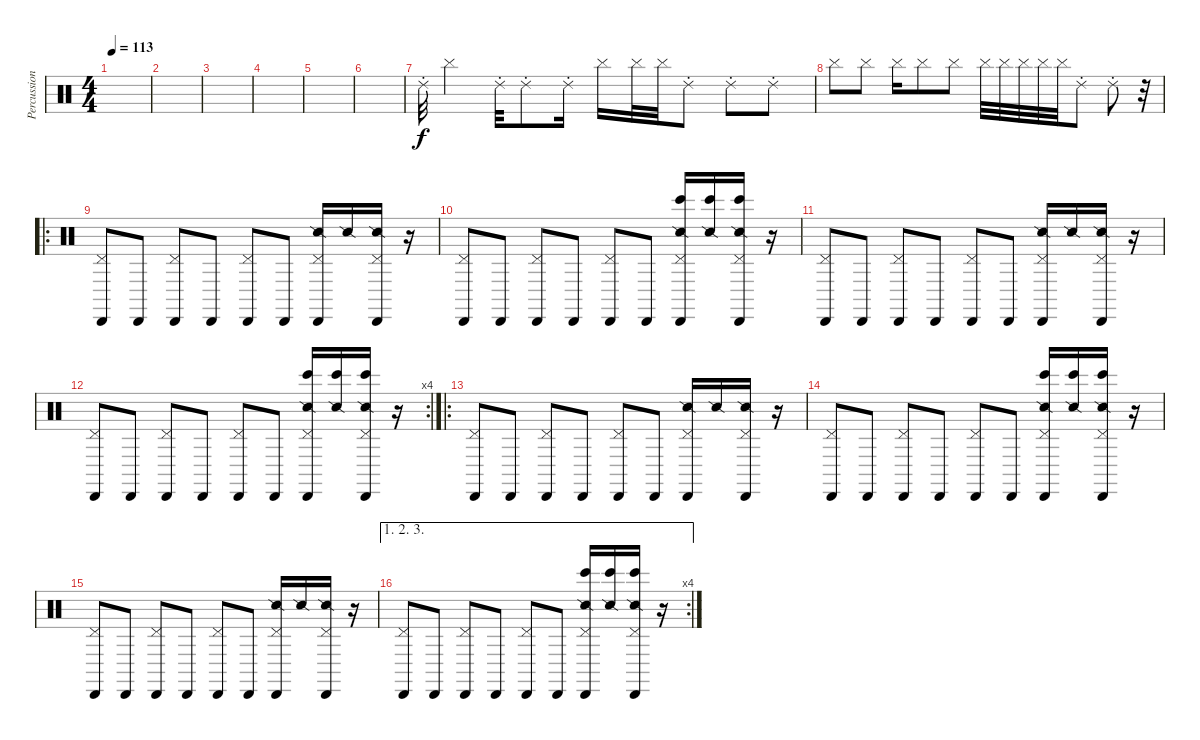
\track ("Percussion" "Percussion") {instrument percussion}
\staff {score}
\articulation defaults
\ts (4 4)
\tempo 113
\clef neutral
\ks c
|
|
|
|
|
|
"Ride (choke) 2".32{volume 16} "Cymbal (hit)".4 "Ride (choke) 2".32 "Ride (choke) 2".8 "Ride (choke) 2".16 "Cymbal (hit)".16 "Cymbal (hit)".32 "Cymbal (hit)".32 "Ride (choke) 2".8 "Ride (choke) 2".8 "Ride (choke) 2".8 |
"Cymbal (hit)".8 "Cymbal (hit)".8 "Cymbal (hit)".16 "Cymbal (hit)".8 "Cymbal (hit)".8 "Cymbal (hit)".32 "Cymbal (hit)".32 "Cymbal (hit)".32 "Cymbal (hit)".32 "Cymbal (hit)".32 "Ride (choke) 2".8 "Ride (choke) 2".8 r.32 |
\ro
("Cabasa (hit)" "Pedal Hi-Hat (hit)").8 "Cabasa (hit)".8 ("Cabasa (hit)" "Pedal Hi-Hat (hit)").8 "Cabasa (hit)".8 ("Cabasa (hit)" "Pedal Hi-Hat (hit)").8 "Cabasa (hit)".8 ("Cabasa (hit)" "Snare (side stick) 2" "Pedal Hi-Hat (hit)").16 "Snare (side stick) 2".16 ("Cabasa (hit)" "Snare (side stick) 2" "Pedal Hi-Hat (hit)").16 r.16 |
("Cabasa (hit)" "Pedal Hi-Hat (hit)").8 "Cabasa (hit)".8 ("Cabasa (hit)" "Pedal Hi-Hat (hit)").8 "Cabasa (hit)".8 ("Cabasa (hit)" "Pedal Hi-Hat (hit)").8 "Cabasa (hit)".8 ("Cabasa (hit)" "Snare (side stick) 2" "Bongo High (hit)" "Pedal Hi-Hat (hit)").16 ("Snare (side stick) 2" "Bongo High (hit)").16 ("Cabasa (hit)" "Snare (side stick) 2" "Bongo High (hit)" "Pedal Hi-Hat (hit)").16 r.16 |
("Cabasa (hit)" "Pedal Hi-Hat (hit)").8 "Cabasa (hit)".8 ("Cabasa (hit)" "Pedal Hi-Hat (hit)").8 "Cabasa (hit)".8 ("Cabasa (hit)" "Pedal Hi-Hat (hit)").8 "Cabasa (hit)".8 ("Cabasa (hit)" "Snare (side stick) 2" "Pedal Hi-Hat (hit)").16 "Snare (side stick) 2".16 ("Cabasa (hit)" "Snare (side stick) 2" "Pedal Hi-Hat (hit)").16 r.16 |
\rc 4
("Cabasa (hit)" "Pedal Hi-Hat (hit)").8 "Cabasa (hit)".8 ("Cabasa (hit)" "Pedal Hi-Hat (hit)").8 "Cabasa (hit)".8 ("Cabasa (hit)" "Pedal Hi-Hat (hit)").8 "Cabasa (hit)".8 ("Cabasa (hit)" "Snare (side stick) 2" "Bongo High (hit)" "Pedal Hi-Hat (hit)").16 ("Snare (side stick) 2" "Bongo High (hit)").16 ("Cabasa (hit)" "Snare (side stick) 2" "Bongo High (hit)" "Pedal Hi-Hat (hit)").16 r.16 |
\ro
("Cabasa (hit)" "Pedal Hi-Hat (hit)").8 "Cabasa (hit)".8 ("Cabasa (hit)" "Pedal Hi-Hat (hit)").8 "Cabasa (hit)".8 ("Cabasa (hit)" "Pedal Hi-Hat (hit)").8 "Cabasa (hit)".8 ("Cabasa (hit)" "Snare (side stick) 2" "Pedal Hi-Hat (hit)").16 "Snare (side stick) 2".16 ("Cabasa (hit)" "Snare (side stick) 2" "Pedal Hi-Hat (hit)").16 r.16 |
("Cabasa (hit)" "Pedal Hi-Hat (hit)").8 "Cabasa (hit)".8 ("Cabasa (hit)" "Pedal Hi-Hat (hit)").8 "Cabasa (hit)".8 ("Cabasa (hit)" "Pedal Hi-Hat (hit)").8 "Cabasa (hit)".8 ("Cabasa (hit)" "Snare (side stick) 2" "Bongo High (hit)" "Pedal Hi-Hat (hit)").16 ("Snare (side stick) 2" "Bongo High (hit)").16 ("Cabasa (hit)" "Snare (side stick) 2" "Bongo High (hit)" "Pedal Hi-Hat (hit)").16 r.16 |
("Cabasa (hit)" "Pedal Hi-Hat (hit)").8 "Cabasa (hit)".8 ("Cabasa (hit)" "Pedal Hi-Hat (hit)").8 "Cabasa (hit)".8 ("Cabasa (hit)" "Pedal Hi-Hat (hit)").8 "Cabasa (hit)".8 ("Cabasa (hit)" "Snare (side stick) 2" "Pedal Hi-Hat (hit)").16 "Snare (side stick) 2".16 ("Cabasa (hit)" "Snare (side stick) 2" "Pedal Hi-Hat (hit)").16 r.16 |
\ae (1 2 3)
\rc 4
("Cabasa (hit)" "Pedal Hi-Hat (hit)").8 "Cabasa (hit)".8 ("Cabasa (hit)" "Pedal Hi-Hat (hit)").8 "Cabasa (hit)".8 ("Cabasa (hit)" "Pedal Hi-Hat (hit)").8 "Cabasa (hit)".8 ("Cabasa (hit)" "Snare (side stick) 2" "Bongo High (hit)" "Pedal Hi-Hat (hit)").16 ("Snare (side stick) 2" "Bongo High (hit)").16 ("Cabasa (hit)" "Snare (side stick) 2" "Bongo High (hit)" "Pedal Hi-Hat (hit)").16 r.16
